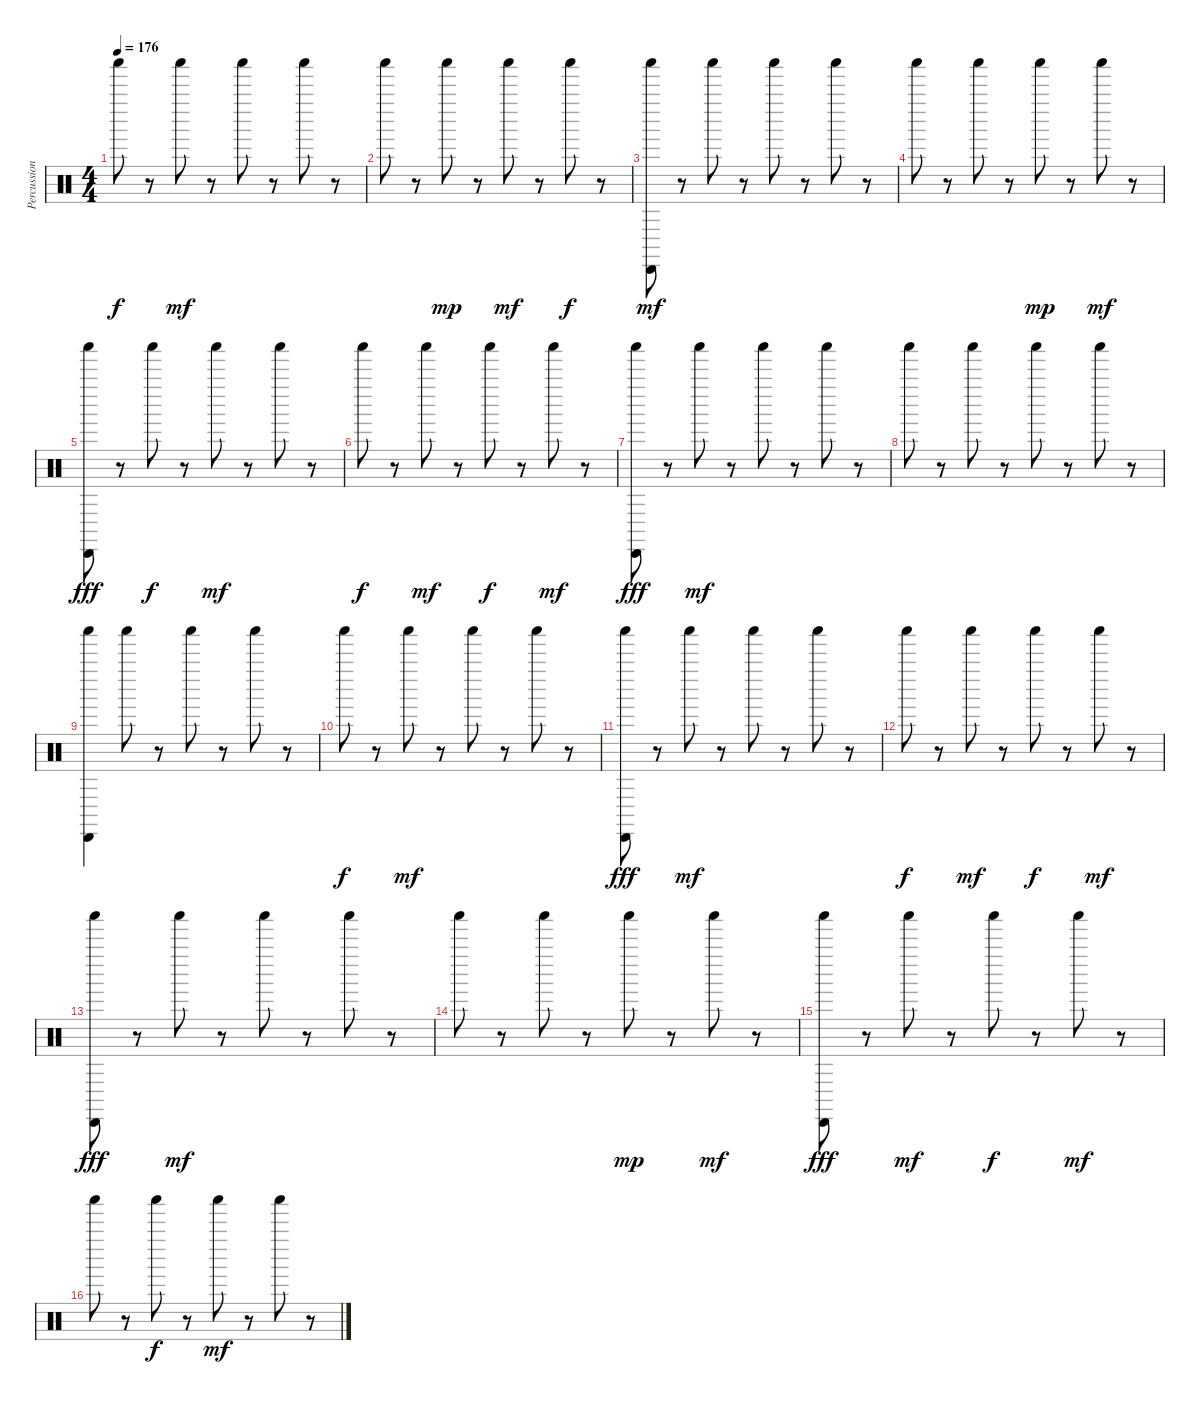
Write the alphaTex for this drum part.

\track ("Percussion" "Percussion") {instrument percussion}
\staff {score}
\articulation defaults
\ts (4 4)
\tempo 176
\clef neutral
\ks c "Shaker (hit)".8{dy f}
r.8 "Shaker (hit)".8{dy mf} r.8 "Shaker (hit)".8 r.8 "Shaker (hit)".8 r.8 |
"Shaker (hit)".8 r.8 "Shaker (hit)".8{dy mp} r.8 "Shaker (hit)".8{dy mf} r.8 "Shaker (hit)".8{dy f} r.8 |
("Cabasa (hit)" "Shaker (hit)").8{dy mf} r.8 "Shaker (hit)".8 r.8 "Shaker (hit)".8 r.8 "Shaker (hit)".8 r.8 |
"Shaker (hit)".8 r.8 "Shaker (hit)".8 r.8 "Shaker (hit)".8{dy mp} r.8 "Shaker (hit)".8{dy mf} r.8 |
("Cabasa (hit)" "Shaker (hit)").8{dy fff} r.8 "Shaker (hit)".8{dy f} r.8 "Shaker (hit)".8{dy mf} r.8 "Shaker (hit)".8 r.8 |
"Shaker (hit)".8{dy f} r.8 "Shaker (hit)".8{dy mf} r.8 "Shaker (hit)".8{dy f} r.8 "Shaker (hit)".8{dy mf} r.8 |
("Cabasa (hit)" "Shaker (hit)").8{dy fff} r.8 "Shaker (hit)".8{dy mf} r.8 "Shaker (hit)".8 r.8 "Shaker (hit)".8 r.8 |
"Shaker (hit)".8 r.8 "Shaker (hit)".8 r.8 "Shaker (hit)".8 r.8 "Shaker (hit)".8 r.8 |
("Shaker (hit)" "Cabasa (hit)").4 "Shaker (hit)".8 r.8 "Shaker (hit)".8 r.8 "Shaker (hit)".8 r.8 |
"Shaker (hit)".8{dy f} r.8 "Shaker (hit)".8{dy mf} r.8 "Shaker (hit)".8 r.8 "Shaker (hit)".8 r.8 |
("Shaker (hit)" "Cabasa (hit)").8{dy fff} r.8 "Shaker (hit)".8{dy mf} r.8 "Shaker (hit)".8 r.8 "Shaker (hit)".8 r.8 |
"Shaker (hit)".8{dy f} r.8 "Shaker (hit)".8{dy mf} r.8 "Shaker (hit)".8{dy f} r.8 "Shaker (hit)".8{dy mf} r.8 |
("Shaker (hit)" "Cabasa (hit)").8{dy fff} r.8 "Shaker (hit)".8{dy mf} r.8 "Shaker (hit)".8 r.8 "Shaker (hit)".8 r.8 |
"Shaker (hit)".8 r.8 "Shaker (hit)".8 r.8 "Shaker (hit)".8{dy mp} r.8 "Shaker (hit)".8{dy mf} r.8 |
("Shaker (hit)" "Cabasa (hit)").8{dy fff} r.8 "Shaker (hit)".8{dy mf} r.8 "Shaker (hit)".8{dy f} r.8 "Shaker (hit)".8{dy mf} r.8 |
"Shaker (hit)".8 r.8 "Shaker (hit)".8{dy f} r.8 "Shaker (hit)".8{dy mf} r.8 "Shaker (hit)".8 r.8
